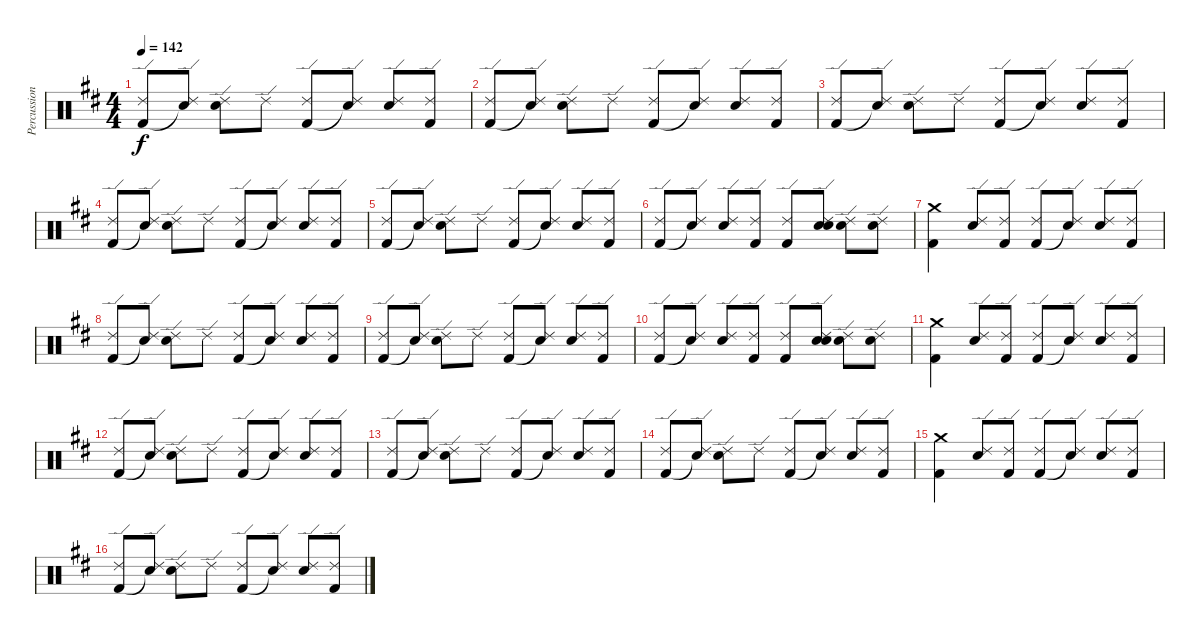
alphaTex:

\track ("Percussion" "Percussion") {instrument percussion}
\staff {score}
\articulation defaults
\ts (4 4)
\tempo 142
\clef neutral
\ks d
("Ride (edge) 2" "Kick (hit) 2").8{dy f} ("Ride (edge) 2" "Snare (hit)"{t}).8 ("Ride (edge) 2" "Snare (hit) 2").8 "Ride (edge) 2".8 ("Ride (edge) 2" "Kick (hit) 2").8 ("Ride (edge) 2" "Snare (hit)"{t}).8 ("Ride (edge) 2" "Snare (hit) 2").8 ("Ride (edge) 2" "Kick (hit) 2").8 |
("Ride (edge) 2" "Kick (hit) 2").8 ("Ride (edge) 2" "Snare (hit)"{t}).8 ("Ride (edge) 2" "Snare (hit) 2").8 "Ride (edge) 2".8 ("Ride (edge) 2" "Kick (hit) 2").8 ("Ride (edge) 2" "Snare (hit)"{t}).8 ("Ride (edge) 2" "Snare (hit) 2").8 ("Ride (edge) 2" "Kick (hit) 2").8 |
("Ride (edge) 2" "Kick (hit) 2").8 ("Ride (edge) 2" "Snare (hit)"{t}).8 ("Ride (edge) 2" "Snare (hit) 2").8 "Ride (edge) 2".8 ("Ride (edge) 2" "Kick (hit) 2").8 ("Ride (edge) 2" "Snare (hit)"{t}).8 ("Ride (edge) 2" "Snare (hit) 2").8 ("Ride (edge) 2" "Kick (hit) 2").8 |
("Ride (edge) 2" "Kick (hit) 2").8 ("Ride (edge) 2" "Snare (hit)"{t}).8 ("Ride (edge) 2" "Snare (hit) 2").8 "Ride (edge) 2".8 ("Ride (edge) 2" "Kick (hit) 2").8 ("Ride (edge) 2" "Snare (hit)"{t}).8 ("Ride (edge) 2" "Snare (hit) 2").8 ("Ride (edge) 2" "Kick (hit) 2").8 |
("Ride (edge) 2" "Kick (hit) 2").8 ("Ride (edge) 2" "Snare (hit)"{t}).8 ("Ride (edge) 2" "Snare (hit) 2").8 "Ride (edge) 2".8 ("Ride (edge) 2" "Kick (hit) 2").8 ("Ride (edge) 2" "Snare (hit)"{t}).8 ("Ride (edge) 2" "Snare (hit) 2").8 ("Ride (edge) 2" "Kick (hit) 2").8 |
("Ride (edge) 2" "Kick (hit) 2").8 ("Ride (edge) 2" "Snare (hit)"{t}).8 ("Ride (edge) 2" "Snare (hit) 2").8 ("Ride (edge) 2" "Kick (hit) 2").8 ("Ride (edge) 2" "Kick (hit) 2").8 ("Ride (edge) 2" "Snare (hit) 2" "Snare (hit)").8 ("Ride (edge) 2" "Snare (hit) 2").8 ("Ride (edge) 2" "Snare (hit) 2").8 |
("Crash medium (hit)" "Kick (hit) 2").4 ("Ride (edge) 2" "Snare (hit) 2").8 ("Ride (edge) 2" "Kick (hit) 2").8 ("Ride (edge) 2" "Kick (hit) 2").8 ("Ride (edge) 2" "Snare (hit)"{t}).8 ("Ride (edge) 2" "Snare (hit) 2").8 ("Ride (edge) 2" "Kick (hit) 2").8 |
("Ride (edge) 2" "Kick (hit) 2").8 ("Ride (edge) 2" "Snare (hit)"{t}).8 ("Ride (edge) 2" "Snare (hit) 2").8 "Ride (edge) 2".8 ("Ride (edge) 2" "Kick (hit) 2").8 ("Ride (edge) 2" "Snare (hit)"{t}).8 ("Ride (edge) 2" "Snare (hit) 2").8 ("Ride (edge) 2" "Kick (hit) 2").8 |
("Ride (edge) 2" "Kick (hit) 2").8 ("Ride (edge) 2" "Snare (hit)"{t}).8 ("Ride (edge) 2" "Snare (hit) 2").8 "Ride (edge) 2".8 ("Ride (edge) 2" "Kick (hit) 2").8 ("Ride (edge) 2" "Snare (hit)"{t}).8 ("Ride (edge) 2" "Snare (hit) 2").8 ("Ride (edge) 2" "Kick (hit) 2").8 |
("Ride (edge) 2" "Kick (hit) 2").8 ("Ride (edge) 2" "Snare (hit)"{t}).8 ("Ride (edge) 2" "Snare (hit) 2").8 ("Ride (edge) 2" "Kick (hit) 2").8 ("Ride (edge) 2" "Kick (hit) 2").8 ("Ride (edge) 2" "Snare (hit) 2" "Snare (hit)").8 ("Ride (edge) 2" "Snare (hit) 2").8 ("Ride (edge) 2" "Snare (hit) 2").8 |
("Crash medium (hit)" "Kick (hit) 2").4 ("Ride (edge) 2" "Snare (hit) 2").8 ("Ride (edge) 2" "Kick (hit) 2").8 ("Ride (edge) 2" "Kick (hit) 2").8 ("Ride (edge) 2" "Snare (hit)"{t}).8 ("Ride (edge) 2" "Snare (hit) 2").8 ("Ride (edge) 2" "Kick (hit) 2").8 |
("Ride (edge) 2" "Kick (hit) 2").8 ("Ride (edge) 2" "Snare (hit)"{t}).8 ("Ride (edge) 2" "Snare (hit) 2").8 "Ride (edge) 2".8 ("Ride (edge) 2" "Kick (hit) 2").8 ("Ride (edge) 2" "Snare (hit)"{t}).8 ("Ride (edge) 2" "Snare (hit) 2").8 ("Ride (edge) 2" "Kick (hit) 2").8 |
("Ride (edge) 2" "Kick (hit) 2").8 ("Ride (edge) 2" "Snare (hit)"{t}).8 ("Ride (edge) 2" "Snare (hit) 2").8 "Ride (edge) 2".8 ("Ride (edge) 2" "Kick (hit) 2").8 ("Ride (edge) 2" "Snare (hit)"{t}).8 ("Ride (edge) 2" "Snare (hit) 2").8 ("Ride (edge) 2" "Kick (hit) 2").8 |
("Ride (edge) 2" "Kick (hit) 2").8 ("Ride (edge) 2" "Snare (hit)"{t}).8 ("Ride (edge) 2" "Snare (hit) 2").8 "Ride (edge) 2".8 ("Ride (edge) 2" "Kick (hit) 2").8 ("Ride (edge) 2" "Snare (hit)"{t}).8 ("Ride (edge) 2" "Snare (hit) 2").8 ("Ride (edge) 2" "Kick (hit) 2").8 |
("Crash medium (hit)" "Kick (hit) 2").4 ("Ride (edge) 2" "Snare (hit) 2").8 ("Ride (edge) 2" "Kick (hit) 2").8 ("Ride (edge) 2" "Kick (hit) 2").8 ("Ride (edge) 2" "Snare (hit)"{t}).8 ("Ride (edge) 2" "Snare (hit) 2").8 ("Ride (edge) 2" "Kick (hit) 2").8 |
("Ride (edge) 2" "Kick (hit) 2").8 ("Ride (edge) 2" "Snare (hit)"{t}).8 ("Ride (edge) 2" "Snare (hit) 2").8 "Ride (edge) 2".8 ("Ride (edge) 2" "Kick (hit) 2").8 ("Ride (edge) 2" "Snare (hit)"{t}).8 ("Ride (edge) 2" "Snare (hit) 2").8 ("Ride (edge) 2" "Kick (hit) 2").8
